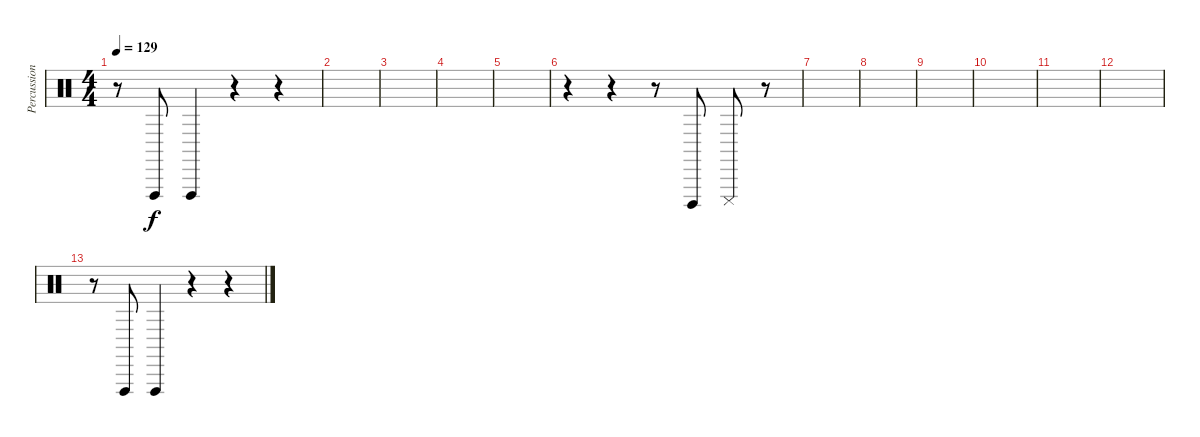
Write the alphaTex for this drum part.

\track ("Percussions" "Percussion") {instrument percussion}
\staff {score}
\articulation defaults
\ts (4 4)
\tempo 129
\clef neutral
\ks c
r.8{dy f} "Vibraslap (hit)".8 "Vibraslap (hit)".4 r.4 r.4 |
|
|
|
|
r.4 r.4 r.8 "Cuica (open)".8 "Cuica (mute)".8 r.8 |
|
|
|
|
|
|
r.8 "Vibraslap (hit)".8 "Vibraslap (hit)".4 r.4 r.4
